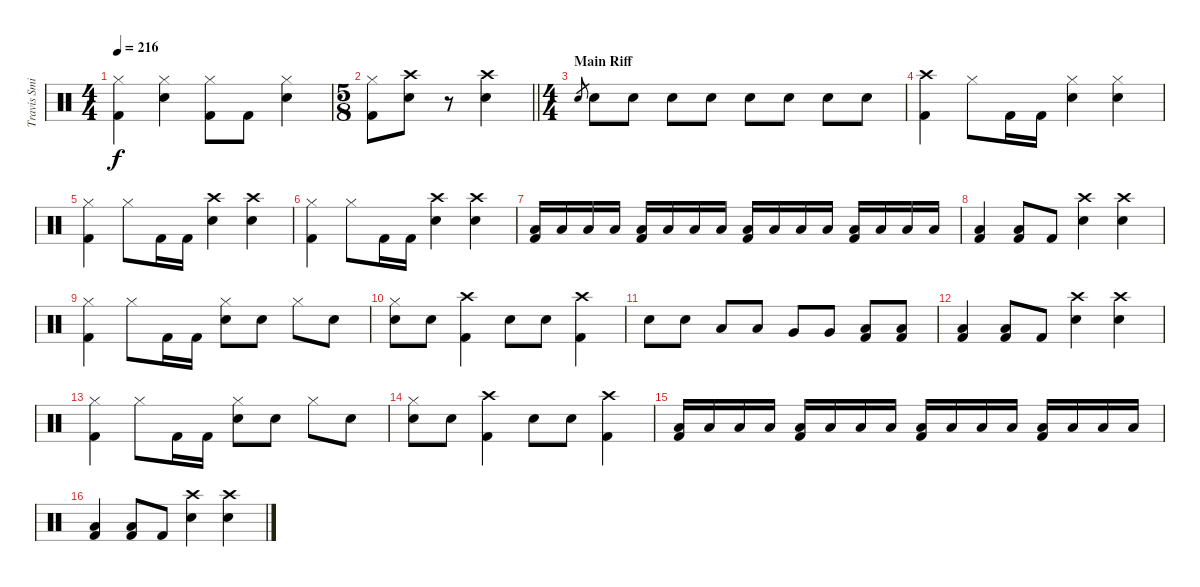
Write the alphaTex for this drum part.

\track ("Travis Smith (Drums)" "Travis Smi") {instrument percussion}
\staff {score}
\articulation defaults
\ts (4 4)
\tempo 216
\clef neutral
\ks c
("Hi-Hat (closed)" "Kick (hit) 2").4{dy f} ("Hi-Hat (closed)" "Electric Snare (hit)").4 ("Hi-Hat (closed)" "Kick (hit) 2").8 "Kick (hit) 2".8 ("Hi-Hat (closed)" "Electric Snare (hit)").4 |
\ts (5 8)
\barLineRight lightlight
("Hi-Hat (closed)" "Kick (hit) 2").8 ("Crash high (hit)" "Electric Snare (hit)").8 r.8 ("Crash high (hit)" "Electric Snare (hit)").4 |
\ts (4 4)
\section ("" "Main Riff")
"Electric Snare (hit)".8{gr} "Electric Snare (hit)".8 "Electric Snare (hit)".8 "Electric Snare (hit)".8 "Electric Snare (hit)".8 "Electric Snare (hit)".8 "Electric Snare (hit)".8 "Electric Snare (hit)".8 "Electric Snare (hit)".8 |
("Crash high (hit)" "Kick (hit) 2").4 "Hi-Hat (closed)".8 "Kick (hit) 2".16 "Kick (hit) 2".16 ("Hi-Hat (closed)" "Electric Snare (hit)").4 ("Hi-Hat (closed)" "Electric Snare (hit)").4 |
("Hi-Hat (closed)" "Kick (hit) 2").4 "Hi-Hat (closed)".8 "Kick (hit) 2".16 "Kick (hit) 2".16 ("Crash high (hit)" "Electric Snare (hit)").4 ("Crash high (hit)" "Electric Snare (hit)").4 |
("Hi-Hat (closed)" "Kick (hit) 2").4 "Hi-Hat (closed)".8 "Kick (hit) 2".16 "Kick (hit) 2".16 ("Crash high (hit)" "Electric Snare (hit)").4 ("Crash high (hit)" "Electric Snare (hit)").4 |
("Low Floor Tom (hit)" "Kick (hit) 2").16 "Low Floor Tom (hit)".16 "Low Floor Tom (hit)".16 "Low Floor Tom (hit)".16 ("Low Floor Tom (hit)" "Kick (hit) 2").16 "Low Floor Tom (hit)".16 "Low Floor Tom (hit)".16 "Low Floor Tom (hit)".16 ("Low Floor Tom (hit)" "Kick (hit) 2").16 "Low Floor Tom (hit)".16 "Low Floor Tom (hit)".16 "Low Floor Tom (hit)".16 ("Low Floor Tom (hit)" "Kick (hit) 2").16 "Low Floor Tom (hit)".16 "Low Floor Tom (hit)".16 "Low Floor Tom (hit)".16 |
("Low Floor Tom (hit)" "Kick (hit) 2").4 ("Low Floor Tom (hit)" "Kick (hit) 2").8 "Kick (hit) 2".8 ("Crash high (hit)" "Electric Snare (hit)").4 ("Crash high (hit)" "Electric Snare (hit)").4 |
("Hi-Hat (closed)" "Kick (hit) 2").4 "Hi-Hat (closed)".8 "Kick (hit) 2".16 "Kick (hit) 2".16 ("Hi-Hat (closed)" "Electric Snare (hit)").8 "Electric Snare (hit)".8 "Hi-Hat (closed)".8 "Electric Snare (hit)".8 |
("Hi-Hat (closed)" "Electric Snare (hit)").8 "Electric Snare (hit)".8 ("Crash high (hit)" "Kick (hit) 2").4 "Electric Snare (hit)".8 "Electric Snare (hit)".8 ("Crash high (hit)" "Kick (hit) 2").4 |
"Electric Snare (hit)".8 "Electric Snare (hit)".8 "Low Floor Tom (hit)".8 "Low Floor Tom (hit)".8 "Very Low Tom (hit)".8 "Very Low Tom (hit)".8 ("Low Floor Tom (hit)" "Kick (hit) 2").8 ("Low Floor Tom (hit)" "Kick (hit) 2").8 |
("Low Floor Tom (hit)" "Kick (hit) 2").4 ("Low Floor Tom (hit)" "Kick (hit) 2").8 "Kick (hit) 2".8 ("Crash high (hit)" "Electric Snare (hit)").4 ("Crash high (hit)" "Electric Snare (hit)").4 |
("Hi-Hat (closed)" "Kick (hit) 2").4 "Hi-Hat (closed)".8 "Kick (hit) 2".16 "Kick (hit) 2".16 ("Hi-Hat (closed)" "Electric Snare (hit)").8 "Electric Snare (hit)".8 "Hi-Hat (closed)".8 "Electric Snare (hit)".8 |
("Hi-Hat (closed)" "Electric Snare (hit)").8 "Electric Snare (hit)".8 ("Crash high (hit)" "Kick (hit) 2").4 "Electric Snare (hit)".8 "Electric Snare (hit)".8 ("Crash high (hit)" "Kick (hit) 2").4 |
("Low Floor Tom (hit)" "Kick (hit) 2").16 "Low Floor Tom (hit)".16 "Low Floor Tom (hit)".16 "Low Floor Tom (hit)".16 ("Low Floor Tom (hit)" "Kick (hit) 2").16 "Low Floor Tom (hit)".16 "Low Floor Tom (hit)".16 "Low Floor Tom (hit)".16 ("Low Floor Tom (hit)" "Kick (hit) 2").16 "Low Floor Tom (hit)".16 "Low Floor Tom (hit)".16 "Low Floor Tom (hit)".16 ("Low Floor Tom (hit)" "Kick (hit) 2").16 "Low Floor Tom (hit)".16 "Low Floor Tom (hit)".16 "Low Floor Tom (hit)".16 |
("Low Floor Tom (hit)" "Kick (hit) 2").4 ("Low Floor Tom (hit)" "Kick (hit) 2").8 "Kick (hit) 2".8 ("Crash high (hit)" "Electric Snare (hit)").4 ("Crash high (hit)" "Electric Snare (hit)").4
